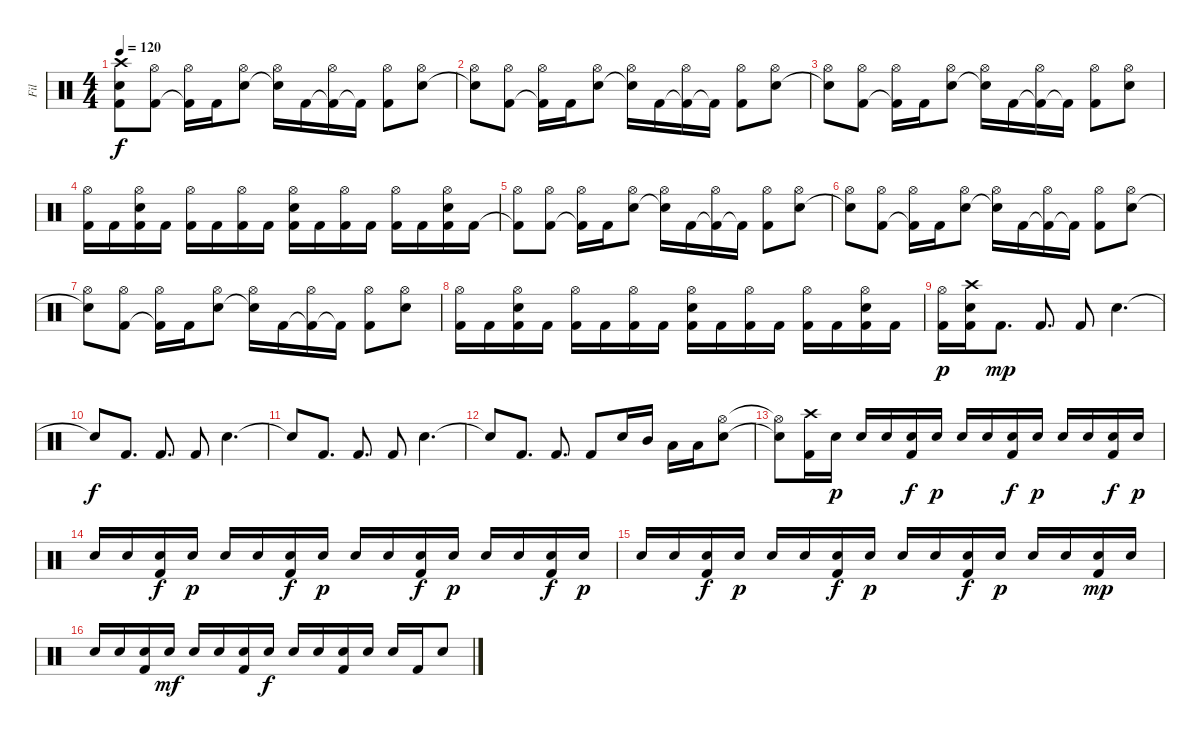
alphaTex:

\track ("Fil" "Fil") {instrument percussion}
\staff {score}
\articulation defaults
\ts (4 4)
\tempo 120
\clef neutral
\ks c
("Crash high (hit)"{t} "Snare (hit) 2"{t} "Kick (hit) 2"{t}).8{dy f} ("Kick (hit) 2" "Hi-Hat (open)").8 ("Kick (hit) 2"{t} "Hi-Hat (open)").16 "Kick (hit) 2".16 ("Snare (hit) 2" "Hi-Hat (open)").8 ("Snare (hit) 2"{t} "Hi-Hat (open)").16 "Kick (hit) 2".16 ("Kick (hit) 2"{t} "Hi-Hat (open)").16 "Kick (hit) 2"{t}.16 ("Kick (hit) 2" "Hi-Hat (open)").8 ("Snare (hit) 2" "Hi-Hat (open)").8 |
("Snare (hit) 2"{t} "Hi-Hat (open)").8 ("Kick (hit) 2" "Hi-Hat (open)").8 ("Kick (hit) 2"{t} "Hi-Hat (open)").16 "Kick (hit) 2".16 ("Snare (hit) 2" "Hi-Hat (open)").8 ("Snare (hit) 2"{t} "Hi-Hat (open)").16 "Kick (hit) 2".16 ("Kick (hit) 2"{t} "Hi-Hat (open)").16 "Kick (hit) 2"{t}.16 ("Kick (hit) 2" "Hi-Hat (open)").8 ("Snare (hit) 2" "Hi-Hat (open)").8 |
("Snare (hit) 2"{t} "Hi-Hat (open)").8 ("Kick (hit) 2" "Hi-Hat (open)").8 ("Kick (hit) 2"{t} "Hi-Hat (open)").16 "Kick (hit) 2".16 ("Snare (hit) 2" "Hi-Hat (open)").8 ("Snare (hit) 2"{t} "Hi-Hat (open)").16 "Kick (hit) 2".16 ("Kick (hit) 2"{t} "Hi-Hat (open)").16 "Kick (hit) 2"{t}.16 ("Kick (hit) 2" "Hi-Hat (open)").8 ("Snare (hit) 2" "Hi-Hat (open)").8 |
("Kick (hit) 2" "Hi-Hat (open)").16 "Kick (hit) 2".16 ("Kick (hit) 2" "Snare (hit) 2" "Hi-Hat (open)").16 "Kick (hit) 2".16 ("Kick (hit) 2" "Hi-Hat (open)").16 "Kick (hit) 2".16 ("Kick (hit) 2" "Hi-Hat (open)").16 "Kick (hit) 2".16 ("Kick (hit) 2" "Snare (hit) 2" "Hi-Hat (open)").16 "Kick (hit) 2".16 ("Kick (hit) 2" "Hi-Hat (open)").16 "Kick (hit) 2".16 ("Kick (hit) 2" "Hi-Hat (open)").16 "Kick (hit) 2".16 ("Kick (hit) 2" "Snare (hit) 2" "Hi-Hat (open)").16 "Kick (hit) 2".16 |
("Kick (hit) 2"{t} "Hi-Hat (open)").8 ("Kick (hit) 2" "Hi-Hat (open)").8 ("Kick (hit) 2"{t} "Hi-Hat (open)").16 "Kick (hit) 2".16 ("Snare (hit) 2" "Hi-Hat (open)").8 ("Snare (hit) 2"{t} "Hi-Hat (open)").16 "Kick (hit) 2".16 ("Kick (hit) 2"{t} "Hi-Hat (open)").16 "Kick (hit) 2"{t}.16 ("Kick (hit) 2" "Hi-Hat (open)").8 ("Snare (hit) 2" "Hi-Hat (open)").8 |
("Snare (hit) 2"{t} "Hi-Hat (open)").8 ("Kick (hit) 2" "Hi-Hat (open)").8 ("Kick (hit) 2"{t} "Hi-Hat (open)").16 "Kick (hit) 2".16 ("Snare (hit) 2" "Hi-Hat (open)").8 ("Snare (hit) 2"{t} "Hi-Hat (open)").16 "Kick (hit) 2".16 ("Kick (hit) 2"{t} "Hi-Hat (open)").16 "Kick (hit) 2"{t}.16 ("Kick (hit) 2" "Hi-Hat (open)").8 ("Snare (hit) 2" "Hi-Hat (open)").8 |
("Snare (hit) 2"{t} "Hi-Hat (open)").8 ("Kick (hit) 2" "Hi-Hat (open)").8 ("Kick (hit) 2"{t} "Hi-Hat (open)").16 "Kick (hit) 2".16 ("Snare (hit) 2" "Hi-Hat (open)").8 ("Snare (hit) 2"{t} "Hi-Hat (open)").16 "Kick (hit) 2".16 ("Kick (hit) 2"{t} "Hi-Hat (open)").16 "Kick (hit) 2"{t}.16 ("Kick (hit) 2" "Hi-Hat (open)").8 ("Snare (hit) 2" "Hi-Hat (open)").8 |
("Kick (hit) 2" "Hi-Hat (open)").16 "Kick (hit) 2".16 ("Kick (hit) 2" "Snare (hit) 2" "Hi-Hat (open)").16 "Kick (hit) 2".16 ("Kick (hit) 2" "Hi-Hat (open)").16 "Kick (hit) 2".16 ("Kick (hit) 2" "Hi-Hat (open)").16 "Kick (hit) 2".16 ("Kick (hit) 2" "Snare (hit) 2" "Hi-Hat (open)").16 "Kick (hit) 2".16 ("Kick (hit) 2" "Hi-Hat (open)").16 "Kick (hit) 2".16 ("Kick (hit) 2" "Hi-Hat (open)").16 "Kick (hit) 2".16 ("Kick (hit) 2" "Snare (hit) 2" "Hi-Hat (open)").16 "Kick (hit) 2".16 |
("Kick (hit) 2" "Hi-Hat (open)").16{dy p} ("Kick (hit) 2" "Snare (hit) 2" "Crash high (hit)").16 "Kick (hit) 2".8{d dy mp} "Kick (hit) 2".8{d} "Kick (hit) 2".8 "Snare (hit) 2".4{d} |
"Snare (hit) 2"{t}.8{dy f} "Kick (hit) 2".8{d} "Kick (hit) 2".8{d} "Kick (hit) 2".8 "Snare (hit) 2".4{d} |
"Snare (hit) 2"{t}.8 "Kick (hit) 2".8{d} "Kick (hit) 2".8{d} "Kick (hit) 2".8 "Snare (hit) 2".4{d} |
"Snare (hit) 2"{t}.8 "Kick (hit) 2".8{d} "Kick (hit) 2".8{d} "Kick (hit) 2".8 "Snare (hit) 2".16 "Mid Tom (hit)".16 "Low Tom (hit)".16 "Low Tom (hit)".16 ("Snare (hit) 2" "Hi-Hat (open)").8 |
("Snare (hit) 2"{t} "Hi-Hat (open)"{t}).8 ("Kick (hit) 2" "Crash high (hit)").16 "Snare (hit) 2".16{dy p} "Snare (hit) 2".16 "Snare (hit) 2".16 ("Kick (hit) 2" "Snare (hit) 2").16{dy f} "Snare (hit) 2".16{dy p} "Snare (hit) 2".16 "Snare (hit) 2".16 ("Kick (hit) 2" "Snare (hit) 2").16{dy f} "Snare (hit) 2".16{dy p} "Snare (hit) 2".16 "Snare (hit) 2".16 ("Kick (hit) 2" "Snare (hit) 2").16{dy f} "Snare (hit) 2".16{dy p} |
"Snare (hit) 2".16 "Snare (hit) 2".16 ("Kick (hit) 2" "Snare (hit) 2").16{dy f} "Snare (hit) 2".16{dy p} "Snare (hit) 2".16 "Snare (hit) 2".16 ("Kick (hit) 2" "Snare (hit) 2").16{dy f} "Snare (hit) 2".16{dy p} "Snare (hit) 2".16 "Snare (hit) 2".16 ("Kick (hit) 2" "Snare (hit) 2").16{dy f} "Snare (hit) 2".16{dy p} "Snare (hit) 2".16 "Snare (hit) 2".16 ("Kick (hit) 2" "Snare (hit) 2").16{dy f} "Snare (hit) 2".16{dy p} |
"Snare (hit) 2".16 "Snare (hit) 2".16 ("Kick (hit) 2" "Snare (hit) 2").16{dy f} "Snare (hit) 2".16{dy p} "Snare (hit) 2".16 "Snare (hit) 2".16 ("Kick (hit) 2" "Snare (hit) 2").16{dy f} "Snare (hit) 2".16{dy p} "Snare (hit) 2".16 "Snare (hit) 2".16 ("Kick (hit) 2" "Snare (hit) 2").16{dy f} "Snare (hit) 2".16{dy p} "Snare (hit) 2".16 "Snare (hit) 2".16 ("Kick (hit) 2" "Snare (hit) 2").16{dy mp} "Snare (hit) 2".16 |
"Snare (hit) 2".16 "Snare (hit) 2".16 ("Kick (hit) 2" "Snare (hit) 2").16 "Snare (hit) 2".16{dy mf} "Snare (hit) 2".16 "Snare (hit) 2".16 ("Kick (hit) 2" "Snare (hit) 2").16 "Snare (hit) 2".16{dy f} "Snare (hit) 2".16 "Snare (hit) 2".16 ("Kick (hit) 2" "Snare (hit) 2").16 "Snare (hit) 2".16 "Snare (hit) 2".16 "Kick (hit) 2".16 "Snare (hit) 2".8
